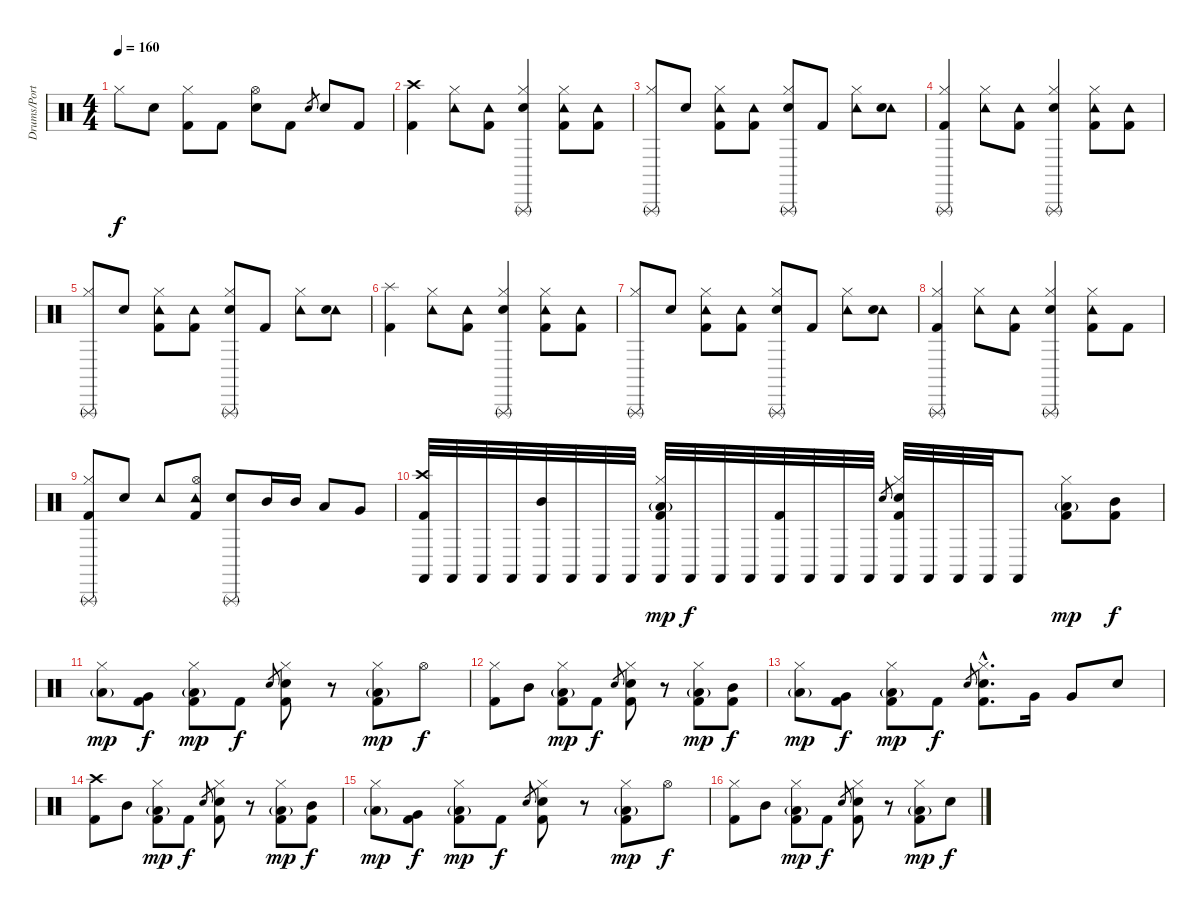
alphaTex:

\track ("Drums/Portnoy" "Drums/Port") {instrument percussion}
\staff {score}
\articulation defaults
\ts (4 4)
\tempo 160
\clef neutral
\ks c "Hi-Hat (closed)".8{dy f} "Electric Snare (hit)".8
("Hi-Hat (closed)" "Kick (hit) 2").8 "Kick (hit) 2".8 ("Hi-Hat (open)" "Electric Snare (hit)").8 "Kick (hit) 2".8 "Electric Snare (hit)".8{gr} "Electric Snare (hit)".8 "Kick (hit) 2".8 |
("Crash high (hit)" "Kick (hit) 2").4 ("Tambourine (hit)" "Hi-Hat (closed)").8 ("Tambourine (hit)" "Kick (hit) 2").8 ("Triangle (rnute)" "Hi-Hat (closed)" "Electric Snare (hit)").4 ("Tambourine (hit)" "Hi-Hat (closed)" "Kick (hit) 2").8 ("Tambourine (hit)" "Kick (hit) 2").8 |
("Triangle (rnute)" "Hi-Hat (closed)").8 "Electric Snare (hit)".8 ("Tambourine (hit)" "Hi-Hat (closed)" "Kick (hit) 2").8 ("Tambourine (hit)" "Kick (hit) 2").8 ("Triangle (rnute)" "Hi-Hat (closed)" "Electric Snare (hit)").8 "Kick (hit) 2".8 ("Tambourine (hit)" "Hi-Hat (closed)").8 ("Tambourine (hit)" "Electric Snare (hit)").8 |
("Triangle (rnute)" "Hi-Hat (closed)" "Kick (hit) 2").4 ("Tambourine (hit)" "Hi-Hat (closed)").8 ("Tambourine (hit)" "Kick (hit) 2").8 ("Triangle (rnute)" "Hi-Hat (closed)" "Electric Snare (hit)").4 ("Tambourine (hit)" "Hi-Hat (closed)" "Kick (hit) 2").8 ("Tambourine (hit)" "Kick (hit) 2").8 |
("Triangle (rnute)" "Hi-Hat (closed)").8 "Electric Snare (hit)".8 ("Tambourine (hit)" "Hi-Hat (closed)" "Kick (hit) 2").8 ("Tambourine (hit)" "Kick (hit) 2").8 ("Triangle (rnute)" "Hi-Hat (closed)" "Electric Snare (hit)").8 "Kick (hit) 2".8 ("Tambourine (hit)" "Hi-Hat (closed)").8 ("Tambourine (hit)" "Electric Snare (hit)").8 |
("Splash (hit)" "Kick (hit) 2").4 ("Tambourine (hit)" "Hi-Hat (closed)").8 ("Tambourine (hit)" "Kick (hit) 2").8 ("Triangle (rnute)" "Hi-Hat (closed)" "Electric Snare (hit)").4 ("Tambourine (hit)" "Hi-Hat (closed)" "Kick (hit) 2").8 ("Tambourine (hit)" "Kick (hit) 2").8 |
("Triangle (rnute)" "Hi-Hat (closed)").8 "Electric Snare (hit)".8 ("Tambourine (hit)" "Hi-Hat (closed)" "Kick (hit) 2").8 ("Tambourine (hit)" "Kick (hit) 2").8 ("Triangle (rnute)" "Hi-Hat (closed)" "Electric Snare (hit)").8 "Kick (hit) 2".8 ("Tambourine (hit)" "Hi-Hat (closed)").8 ("Tambourine (hit)" "Electric Snare (hit)").8 |
("Triangle (rnute)" "Hi-Hat (closed)" "Kick (hit) 2").4 ("Tambourine (hit)" "Hi-Hat (closed)").8 ("Tambourine (hit)" "Kick (hit) 2").8 ("Triangle (rnute)" "Hi-Hat (closed)" "Electric Snare (hit)").4 ("Tambourine (hit)" "Hi-Hat (closed)" "Kick (hit) 2").8 "Kick (hit) 2".8 |
("Triangle (rnute)" "Hi-Hat (closed)" "Kick (hit) 2").8 "Electric Snare (hit)".8 "Tambourine (hit)".8 ("Tambourine (hit)" "Hi-Hat (open)" "Kick (hit) 2").8 ("Triangle (rnute)" "Electric Snare (hit)").8 "Mid Tom (hit)".16 "Mid Tom (hit)".16 "Low Tom (hit)".8 "Very Low Tom (hit)".8 |
("Castanets (hit)" "Crash high (hit)" "Kick (hit) 2").32 "Castanets (hit)".32 "Castanets (hit)".32 "Castanets (hit)".32 ("Castanets (hit)" "Mid Tom (hit)").32 "Castanets (hit)".32 "Castanets (hit)".32 "Castanets (hit)".32 ("Castanets (hit)" "Hi-Hat (closed)" "Low Tom (hit)"{g} "Kick (hit) 2").32{dy mp} "Castanets (hit)".32{dy f} "Castanets (hit)".32 "Castanets (hit)".32 ("Castanets (hit)" "Kick (hit) 2").32 "Castanets (hit)".32 "Castanets (hit)".32 "Castanets (hit)".32 "Electric Snare (hit)".8{gr} ("Castanets (hit)" "Hi-Hat (closed)" "Electric Snare (hit)" "Kick (hit) 2").32 "Castanets (hit)".32 "Castanets (hit)".32 "Castanets (hit)".32 "Castanets (hit)".8 ("Hi-Hat (closed)" "Low Tom (hit)"{g} "Kick (hit) 2").8{dy mp} ("Mid Tom (hit)" "Kick (hit) 2").8{dy f} |
("Hi-Hat (closed)" "Low Tom (hit)"{g}).8{dy mp} ("Very Low Tom (hit)" "Kick (hit) 2").8{dy f} ("Hi-Hat (closed)" "Low Tom (hit)"{g} "Kick (hit) 2").8{dy mp} "Kick (hit) 2".8{dy f} "Electric Snare (hit)".8{gr} ("Hi-Hat (closed)" "Electric Snare (hit)" "Kick (hit) 2").8 r.8 ("Hi-Hat (closed)" "Low Tom (hit)"{g} "Kick (hit) 2").8{dy mp} "Hi-Hat (open)".8{dy f} |
("Hi-Hat (closed)" "Kick (hit) 2").8 "Mid Tom (hit)".8 ("Hi-Hat (closed)" "Low Tom (hit)"{g} "Kick (hit) 2").8{dy mp} "Kick (hit) 2".8{dy f} "Electric Snare (hit)".8{gr} ("Hi-Hat (closed)" "Electric Snare (hit)" "Kick (hit) 2").8 r.8 ("Hi-Hat (closed)" "Low Tom (hit)"{g} "Kick (hit) 2").8{dy mp} ("Mid Tom (hit)" "Kick (hit) 2").8{dy f} |
("Hi-Hat (closed)" "Low Tom (hit)"{g}).8{dy mp} ("Very Low Tom (hit)" "Kick (hit) 2").8{dy f} ("Hi-Hat (closed)" "Low Tom (hit)"{g} "Kick (hit) 2").8{dy mp} "Kick (hit) 2".8{dy f} "Electric Snare (hit)".8{gr} ("Hi-Hat (closed)"{hac} "Electric Snare (hit)"{hac} "Kick (hit) 2"{hac}).8{d} "Very Low Tom (hit)".16 "Very Low Tom (hit)".8 "Electric Snare (hit)".8 |
("Crash high (hit)" "Kick (hit) 2").8 "Mid Tom (hit)".8 ("Hi-Hat (closed)" "Low Tom (hit)"{g} "Kick (hit) 2").8{dy mp} "Kick (hit) 2".8{dy f} "Electric Snare (hit)".8{gr} ("Hi-Hat (closed)" "Electric Snare (hit)" "Kick (hit) 2").8 r.8 ("Hi-Hat (closed)" "Low Tom (hit)"{g} "Kick (hit) 2").8{dy mp} ("Mid Tom (hit)" "Kick (hit) 2").8{dy f} |
("Hi-Hat (closed)" "Low Tom (hit)"{g}).8{dy mp} ("Very Low Tom (hit)" "Kick (hit) 2").8{dy f} ("Hi-Hat (closed)" "Low Tom (hit)"{g} "Kick (hit) 2").8{dy mp} "Kick (hit) 2".8{dy f} "Electric Snare (hit)".8{gr} ("Hi-Hat (closed)" "Electric Snare (hit)" "Kick (hit) 2").8 r.8 ("Hi-Hat (closed)" "Low Tom (hit)"{g} "Kick (hit) 2").8{dy mp} "Hi-Hat (open)".8{dy f} |
("Hi-Hat (closed)" "Kick (hit) 2").8 "Mid Tom (hit)".8 ("Hi-Hat (closed)" "Low Tom (hit)"{g} "Kick (hit) 2").8{dy mp} "Kick (hit) 2".8{dy f} "Electric Snare (hit)".8{gr} ("Hi-Hat (closed)" "Electric Snare (hit)" "Kick (hit) 2").8 r.8 ("Hi-Hat (closed)" "Low Tom (hit)"{g} "Kick (hit) 2").8{dy mp} "Electric Snare (hit)".8{dy f}
